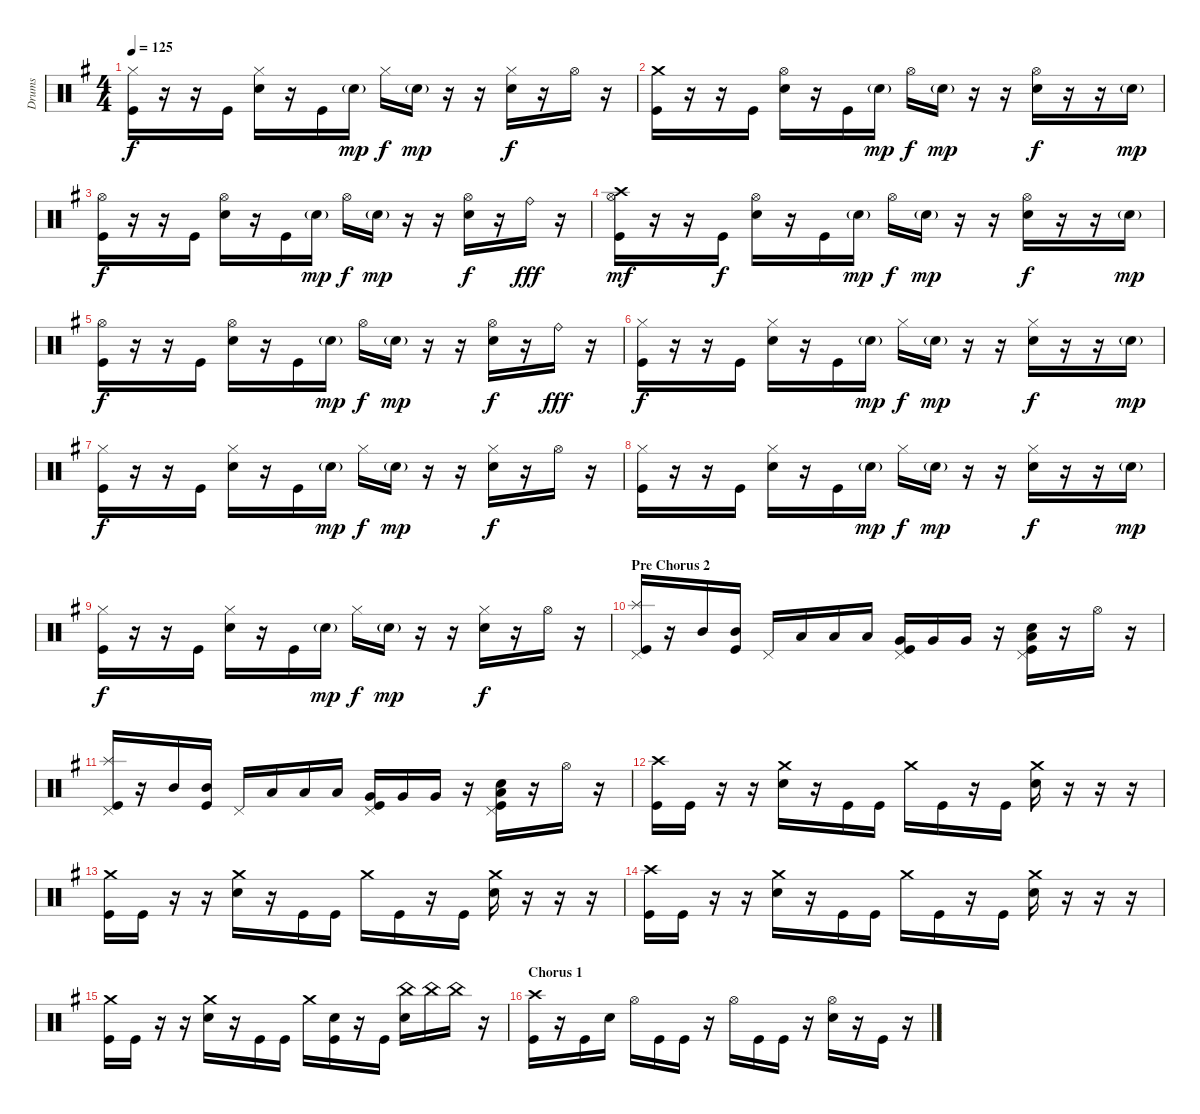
\track ("Drums" "Drums") {instrument percussion}
\staff {score}
\articulation defaults
\ts (4 4)
\tempo 125
\clef neutral
\ks eminor
("Hi-Hat (closed)" "Kick (hit)").16{dy f} r.16 r.16 "Kick (hit)".16 ("Hi-Hat (closed)" "Electric Snare (hit)").16 r.16 "Kick (hit)".16 "Electric Snare (hit)"{g}.16{dy mp} "Hi-Hat (closed)".16{dy f} "Electric Snare (hit)"{g}.16{dy mp} r.16 r.16 ("Hi-Hat (closed)" "Electric Snare (hit)").16{dy f} r.16 "Hi-Hat (open)".16 r.16 |
("Crash medium (hit)" "Kick (hit)").16 r.16 r.16 "Kick (hit)".16 ("Hi-Hat (open)" "Electric Snare (hit)").16 r.16 "Kick (hit)".16 "Electric Snare (hit)"{g}.16{dy mp} "Hi-Hat (open)".16{dy f} "Electric Snare (hit)"{g}.16{dy mp} r.16 r.16 ("Hi-Hat (open)" "Electric Snare (hit)").16{dy f} r.16 r.16 "Electric Snare (hit)"{g}.16{dy mp} |
("Hi-Hat (open)" "Kick (hit)").16{dy f} r.16 r.16 "Kick (hit)".16 ("Hi-Hat (open)" "Electric Snare (hit)").16 r.16 "Kick (hit)".16 "Electric Snare (hit)"{g}.16{dy mp} "Hi-Hat (open)".16{dy f} "Electric Snare (hit)"{g}.16{dy mp} r.16 r.16 ("Hi-Hat (open)" "Electric Snare (hit)").16{dy f} r.16 "Ride (bell)".16{dy fff} r.16 |
("Crash high (hit)" "Hi-Hat (open)" "Kick (hit)").16{dy mf} r.16 r.16 "Kick (hit)".16{dy f} ("Hi-Hat (open)" "Electric Snare (hit)").16 r.16 "Kick (hit)".16 "Electric Snare (hit)"{g}.16{dy mp} "Hi-Hat (open)".16{dy f} "Electric Snare (hit)"{g}.16{dy mp} r.16 r.16 ("Hi-Hat (open)" "Electric Snare (hit)").16{dy f} r.16 r.16 "Electric Snare (hit)"{g}.16{dy mp} |
("Hi-Hat (open)" "Kick (hit)").16{dy f} r.16 r.16 "Kick (hit)".16 ("Hi-Hat (open)" "Electric Snare (hit)").16 r.16 "Kick (hit)".16 "Electric Snare (hit)"{g}.16{dy mp} "Hi-Hat (open)".16{dy f} "Electric Snare (hit)"{g}.16{dy mp} r.16 r.16 ("Hi-Hat (open)" "Electric Snare (hit)").16{dy f} r.16 "Ride (bell)".16{dy fff} r.16 |
("Hi-Hat (closed)" "Kick (hit)").16{dy f} r.16 r.16 "Kick (hit)".16 ("Hi-Hat (closed)" "Electric Snare (hit)").16 r.16 "Kick (hit)".16 "Electric Snare (hit)"{g}.16{dy mp} "Hi-Hat (closed)".16{dy f} "Electric Snare (hit)"{g}.16{dy mp} r.16 r.16 ("Hi-Hat (closed)" "Electric Snare (hit)").16{dy f} r.16 r.16 "Electric Snare (hit)"{g}.16{dy mp} |
("Hi-Hat (closed)" "Kick (hit)").16{dy f} r.16 r.16 "Kick (hit)".16 ("Hi-Hat (closed)" "Electric Snare (hit)").16 r.16 "Kick (hit)".16 "Electric Snare (hit)"{g}.16{dy mp} "Hi-Hat (closed)".16{dy f} "Electric Snare (hit)"{g}.16{dy mp} r.16 r.16 ("Hi-Hat (closed)" "Electric Snare (hit)").16{dy f} r.16 "Hi-Hat (open)".16 r.16 |
("Hi-Hat (closed)" "Kick (hit)").16 r.16 r.16 "Kick (hit)".16 ("Hi-Hat (closed)" "Electric Snare (hit)").16 r.16 "Kick (hit)".16 "Electric Snare (hit)"{g}.16{dy mp} "Hi-Hat (closed)".16{dy f} "Electric Snare (hit)"{g}.16{dy mp} r.16 r.16 ("Hi-Hat (closed)" "Electric Snare (hit)").16{dy f} r.16 r.16 "Electric Snare (hit)"{g}.16{dy mp} |
("Hi-Hat (closed)" "Kick (hit)").16{dy f} r.16 r.16 "Kick (hit)".16 ("Hi-Hat (closed)" "Electric Snare (hit)").16 r.16 "Kick (hit)".16 "Electric Snare (hit)"{g}.16{dy mp} "Hi-Hat (closed)".16{dy f} "Electric Snare (hit)"{g}.16{dy mp} r.16 r.16 ("Hi-Hat (closed)" "Electric Snare (hit)").16{dy f} r.16 "Hi-Hat (open)".16 r.16 |
\section ("" "Pre Chorus 2")
("Splash (hit)" "Pedal Hi-Hat (hit)" "Kick (hit)").16 r.16 "Mid Tom (hit)".16 ("Mid Tom (hit)" "Kick (hit)").16 "Pedal Hi-Hat (hit)".16 "Low Tom (hit)".16 "Low Tom (hit)".16 "Low Tom (hit)".16 ("Pedal Hi-Hat (hit)" "Very Low Tom (hit)" "Kick (hit)").16 "Very Low Tom (hit)".16 "Very Low Tom (hit)".16 r.16 ("Pedal Hi-Hat (hit)" "Snare (hit) 2" "Low Floor Tom (hit)" "Kick (hit)").16 r.16 "Hi-Hat (open)".16 r.16 |
("Splash (hit)" "Pedal Hi-Hat (hit)" "Kick (hit)").16 r.16 "Mid Tom (hit)".16 ("Mid Tom (hit)" "Kick (hit)").16 "Pedal Hi-Hat (hit)".16 "Low Tom (hit)".16 "Low Tom (hit)".16 "Low Tom (hit)".16 ("Pedal Hi-Hat (hit)" "Very Low Tom (hit)" "Kick (hit)").16 "Very Low Tom (hit)".16 "Very Low Tom (hit)".16 r.16 ("Pedal Hi-Hat (hit)" "Snare (hit) 2" "Low Floor Tom (hit)" "Kick (hit)").16 r.16 "Hi-Hat (open)".16 r.16 |
("Crash high (hit)" "Kick (hit)").16 "Kick (hit)".16 r.16 r.16 ("Crash medium (hit)" "Electric Snare (hit)").16 r.16 "Kick (hit)".16 "Kick (hit)".16 "Crash medium (hit)".16 "Kick (hit)".16 r.16 "Kick (hit)".16 ("Crash medium (hit)" "Electric Snare (hit)").16 r.16 r.16 r.16 |
("Crash medium (hit)" "Kick (hit)").16 "Kick (hit)".16 r.16 r.16 ("Crash medium (hit)" "Electric Snare (hit)").16 r.16 "Kick (hit)".16 "Kick (hit)".16 "Crash medium (hit)".16 "Kick (hit)".16 r.16 "Kick (hit)".16 ("Crash medium (hit)" "Electric Snare (hit)").16 r.16 r.16 r.16 |
("Crash high (hit)" "Kick (hit)").16 "Kick (hit)".16 r.16 r.16 ("Crash medium (hit)" "Electric Snare (hit)").16 r.16 "Kick (hit)".16 "Kick (hit)".16 "Crash medium (hit)".16 "Kick (hit)".16 r.16 "Kick (hit)".16 ("Crash medium (hit)" "Electric Snare (hit)").16 r.16 r.16 r.16 |
("Crash medium (hit)" "Kick (hit)").16 "Kick (hit)".16 r.16 r.16 ("Crash medium (hit)" "Electric Snare (hit)").16 r.16 "Kick (hit)".16 "Kick (hit)".16 "Crash medium (hit)".16 ("Electric Snare (hit)" "Kick (hit)").16 r.16 "Kick (hit)".16 ("China (hit)" "Electric Snare (hit)").16 "China (hit)".16 "China (hit)".16 r.16 |
\section ("" "Chorus 1")
("Crash high (hit)" "Kick (hit)").16 r.16 "Kick (hit)".16 "Electric Snare (hit)".16 "Hi-Hat (open)".16 "Kick (hit)".16 "Kick (hit)".16 r.16 "Hi-Hat (open)".16 "Kick (hit)".16 "Kick (hit)".16 r.16 ("Hi-Hat (open)" "Electric Snare (hit)").16 r.16 "Kick (hit)".16 r.16
